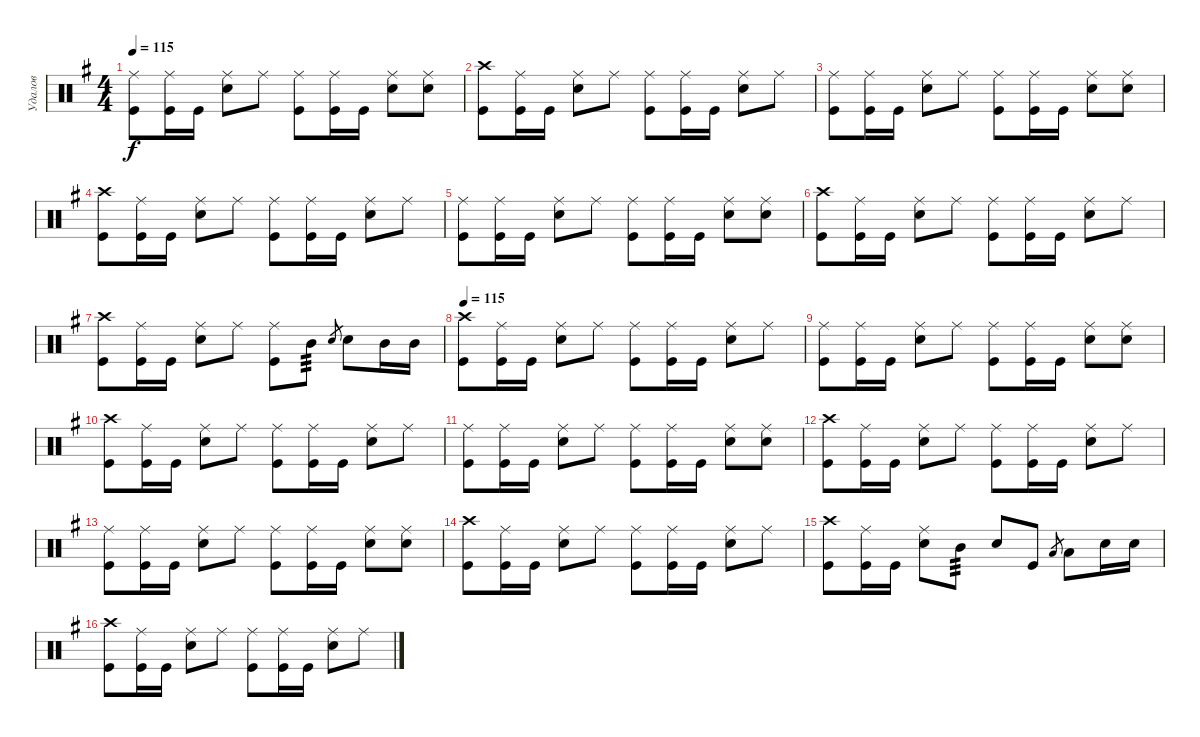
\track ("Удалов" "Удалов") {instrument percussion}
\staff {score}
\articulation defaults
\ts (4 4)
\tempo 115
\clef neutral
\ks g
("Ride (middle)" "Kick (hit)").8{dy f} ("Ride (middle)" "Kick (hit)").16 "Kick (hit)".16 ("Ride (middle)" "Electric Snare (hit)").8 "Ride (middle)".8 ("Ride (middle)" "Kick (hit)").8 ("Ride (middle)" "Kick (hit)").16 "Kick (hit)".16 ("Ride (middle)" "Electric Snare (hit)").8 ("Ride (middle)" "Electric Snare (hit)").8 |
("Crash high (hit)" "Kick (hit)").8 ("Ride (middle)" "Kick (hit)").16 "Kick (hit)".16 ("Ride (middle)" "Electric Snare (hit)").8 "Ride (middle)".8 ("Ride (middle)" "Kick (hit)").8 ("Ride (middle)" "Kick (hit)").16 "Kick (hit)".16 ("Ride (middle)" "Electric Snare (hit)").8 "Ride (middle)".8 |
("Ride (middle)" "Kick (hit)").8 ("Ride (middle)" "Kick (hit)").16 "Kick (hit)".16 ("Ride (middle)" "Electric Snare (hit)").8 "Ride (middle)".8 ("Ride (middle)" "Kick (hit)").8 ("Ride (middle)" "Kick (hit)").16 "Kick (hit)".16 ("Ride (middle)" "Electric Snare (hit)").8 ("Ride (middle)" "Electric Snare (hit)").8 |
("Crash high (hit)" "Kick (hit)").8 ("Ride (middle)" "Kick (hit)").16 "Kick (hit)".16 ("Ride (middle)" "Electric Snare (hit)").8 "Ride (middle)".8 ("Ride (middle)" "Kick (hit)").8 ("Ride (middle)" "Kick (hit)").16 "Kick (hit)".16 ("Ride (middle)" "Electric Snare (hit)").8 "Ride (middle)".8 |
("Ride (middle)" "Kick (hit)").8 ("Ride (middle)" "Kick (hit)").16 "Kick (hit)".16 ("Ride (middle)" "Electric Snare (hit)").8 "Ride (middle)".8 ("Ride (middle)" "Kick (hit)").8 ("Ride (middle)" "Kick (hit)").16 "Kick (hit)".16 ("Ride (middle)" "Electric Snare (hit)").8 ("Ride (middle)" "Electric Snare (hit)").8 |
("Crash high (hit)" "Kick (hit)").8 ("Ride (middle)" "Kick (hit)").16 "Kick (hit)".16 ("Ride (middle)" "Electric Snare (hit)").8 "Ride (middle)".8 ("Ride (middle)" "Kick (hit)").8 ("Ride (middle)" "Kick (hit)").16 "Kick (hit)".16 ("Ride (middle)" "Electric Snare (hit)").8 "Ride (middle)".8 |
("Crash high (hit)" "Kick (hit)").8 ("Ride (middle)" "Kick (hit)").16 "Kick (hit)".16 ("Ride (middle)" "Electric Snare (hit)").8 "Ride (middle)".8 ("Ride (middle)" "Kick (hit)").8 "Mid Tom (hit)".8{tp 3} "Electric Snare (hit)".8{gr} "Electric Snare (hit)".8 "Mid Tom (hit)".16 "Mid Tom (hit)".16 |
\tempo 115
("Crash high (hit)" "Kick (hit)").8 ("Ride (middle)" "Kick (hit)").16 "Kick (hit)".16 ("Ride (middle)" "Electric Snare (hit)").8 "Ride (middle)".8 ("Ride (middle)" "Kick (hit)").8 ("Ride (middle)" "Kick (hit)").16 "Kick (hit)".16 ("Ride (middle)" "Electric Snare (hit)").8 "Ride (middle)".8 |
("Ride (middle)" "Kick (hit)").8 ("Ride (middle)" "Kick (hit)").16 "Kick (hit)".16 ("Ride (middle)" "Electric Snare (hit)").8 "Ride (middle)".8 ("Ride (middle)" "Kick (hit)").8 ("Ride (middle)" "Kick (hit)").16 "Kick (hit)".16 ("Ride (middle)" "Electric Snare (hit)").8 ("Ride (middle)" "Electric Snare (hit)").8 |
("Crash high (hit)" "Kick (hit)").8 ("Ride (middle)" "Kick (hit)").16 "Kick (hit)".16 ("Ride (middle)" "Electric Snare (hit)").8 "Ride (middle)".8 ("Ride (middle)" "Kick (hit)").8 ("Ride (middle)" "Kick (hit)").16 "Kick (hit)".16 ("Ride (middle)" "Electric Snare (hit)").8 "Ride (middle)".8 |
("Ride (middle)" "Kick (hit)").8 ("Ride (middle)" "Kick (hit)").16 "Kick (hit)".16 ("Ride (middle)" "Electric Snare (hit)").8 "Ride (middle)".8 ("Ride (middle)" "Kick (hit)").8 ("Ride (middle)" "Kick (hit)").16 "Kick (hit)".16 ("Ride (middle)" "Electric Snare (hit)").8 ("Ride (middle)" "Electric Snare (hit)").8 |
("Crash high (hit)" "Kick (hit)").8 ("Ride (middle)" "Kick (hit)").16 "Kick (hit)".16 ("Ride (middle)" "Electric Snare (hit)").8 "Ride (middle)".8 ("Ride (middle)" "Kick (hit)").8 ("Ride (middle)" "Kick (hit)").16 "Kick (hit)".16 ("Ride (middle)" "Electric Snare (hit)").8 "Ride (middle)".8 |
("Ride (middle)" "Kick (hit)").8 ("Ride (middle)" "Kick (hit)").16 "Kick (hit)".16 ("Ride (middle)" "Electric Snare (hit)").8 "Ride (middle)".8 ("Ride (middle)" "Kick (hit)").8 ("Ride (middle)" "Kick (hit)").16 "Kick (hit)".16 ("Ride (middle)" "Electric Snare (hit)").8 ("Ride (middle)" "Electric Snare (hit)").8 |
("Crash high (hit)" "Kick (hit)").8 ("Ride (middle)" "Kick (hit)").16 "Kick (hit)".16 ("Ride (middle)" "Electric Snare (hit)").8 "Ride (middle)".8 ("Ride (middle)" "Kick (hit)").8 ("Ride (middle)" "Kick (hit)").16 "Kick (hit)".16 ("Ride (middle)" "Electric Snare (hit)").8 "Ride (middle)".8 |
("Crash high (hit)" "Kick (hit)").8 ("Ride (middle)" "Kick (hit)").16 "Kick (hit)".16 ("Ride (middle)" "Electric Snare (hit)").8 "Mid Tom (hit)".8{tp 3} "Electric Snare (hit)".8 "Kick (hit)".8 "Low Tom (hit)".8{gr} "Low Tom (hit)".8 "Electric Snare (hit)".16 "Electric Snare (hit)".16 |
("Crash high (hit)" "Kick (hit)").8 ("Ride (middle)" "Kick (hit)").16 "Kick (hit)".16 ("Ride (middle)" "Electric Snare (hit)").8 "Ride (middle)".8 ("Ride (middle)" "Kick (hit)").8 ("Ride (middle)" "Kick (hit)").16 "Kick (hit)".16 ("Ride (middle)" "Electric Snare (hit)").8 "Ride (middle)".8
